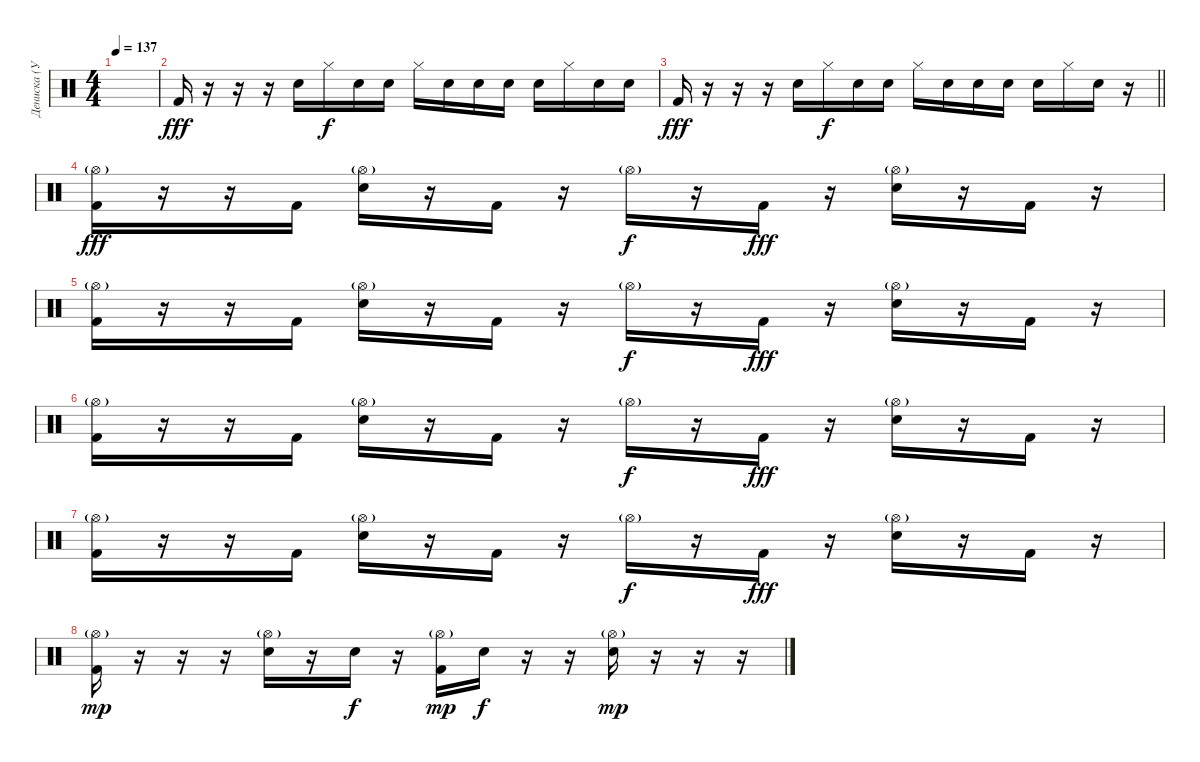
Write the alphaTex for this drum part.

\track ("Дениска (Ударник)" "Дениска (У") {instrument percussion}
\staff
\articulation defaults
\ts (4 4)
\tempo 137
\clef neutral
\ks c
|
"Kick (hit) 2".16{dy fff} r.16 r.16 r.16 "Snare (hit) 2".16 "Hi-Hat (closed)".16{dy f} "Snare (hit) 2".16 "Snare (hit) 2".16 "Hi-Hat (closed)".16 "Snare (hit) 2".16 "Snare (hit) 2".16 "Snare (hit) 2".16 "Snare (hit) 2".16 "Hi-Hat (closed)".16 "Snare (hit) 2".16 "Snare (hit) 2".16 |
\barLineRight lightlight "Kick (hit) 2".16{dy fff}
r.16 r.16 r.16 "Snare (hit) 2".16 "Hi-Hat (closed)".16{dy f} "Snare (hit) 2".16 "Snare (hit) 2".16 "Hi-Hat (closed)".16 "Snare (hit) 2".16 "Snare (hit) 2".16 "Snare (hit) 2".16 "Snare (hit) 2".16 "Hi-Hat (closed)".16 "Snare (hit) 2".16 r.16 |
("Kick (hit) 2" "Hi-Hat (open)"{g}).16{dy fff} r.16 r.16 "Kick (hit) 2".16 ("Snare (hit) 2" "Hi-Hat (open)"{g}).16 r.16 "Kick (hit) 2".16 r.16 "Hi-Hat (open)"{g}.16{dy f} r.16 "Kick (hit) 2".16{dy fff} r.16 ("Snare (hit) 2" "Hi-Hat (open)"{g}).16 r.16 "Kick (hit) 2".16 r.16 |
("Kick (hit) 2" "Hi-Hat (open)"{g}).16 r.16 r.16 "Kick (hit) 2".16 ("Snare (hit) 2" "Hi-Hat (open)"{g}).16 r.16 "Kick (hit) 2".16 r.16 "Hi-Hat (open)"{g}.16{dy f} r.16 "Kick (hit) 2".16{dy fff} r.16 ("Snare (hit) 2" "Hi-Hat (open)"{g}).16 r.16 "Kick (hit) 2".16 r.16 |
("Kick (hit) 2" "Hi-Hat (open)"{g}).16 r.16 r.16 "Kick (hit) 2".16 ("Snare (hit) 2" "Hi-Hat (open)"{g}).16 r.16 "Kick (hit) 2".16 r.16 "Hi-Hat (open)"{g}.16{dy f} r.16 "Kick (hit) 2".16{dy fff} r.16 ("Snare (hit) 2" "Hi-Hat (open)"{g}).16 r.16 "Kick (hit) 2".16 r.16 |
("Kick (hit) 2" "Hi-Hat (open)"{g}).16 r.16 r.16 "Kick (hit) 2".16 ("Snare (hit) 2" "Hi-Hat (open)"{g}).16 r.16 "Kick (hit) 2".16 r.16 "Hi-Hat (open)"{g}.16{dy f} r.16 "Kick (hit) 2".16{dy fff} r.16 ("Snare (hit) 2" "Hi-Hat (open)"{g}).16 r.16 "Kick (hit) 2".16 r.16 |
("Kick (hit) 2" "Hi-Hat (open)"{g}).16{dy mp} r.16 r.16 r.16 ("Snare (hit) 2" "Hi-Hat (open)"{g}).16 r.16 "Snare (hit) 2".16{dy f} r.16 ("Kick (hit) 2" "Hi-Hat (open)"{g}).16{dy mp} "Snare (hit) 2".16{dy f} r.16 r.16 ("Snare (hit) 2" "Hi-Hat (open)"{g}).16{dy mp} r.16 r.16 r.16
